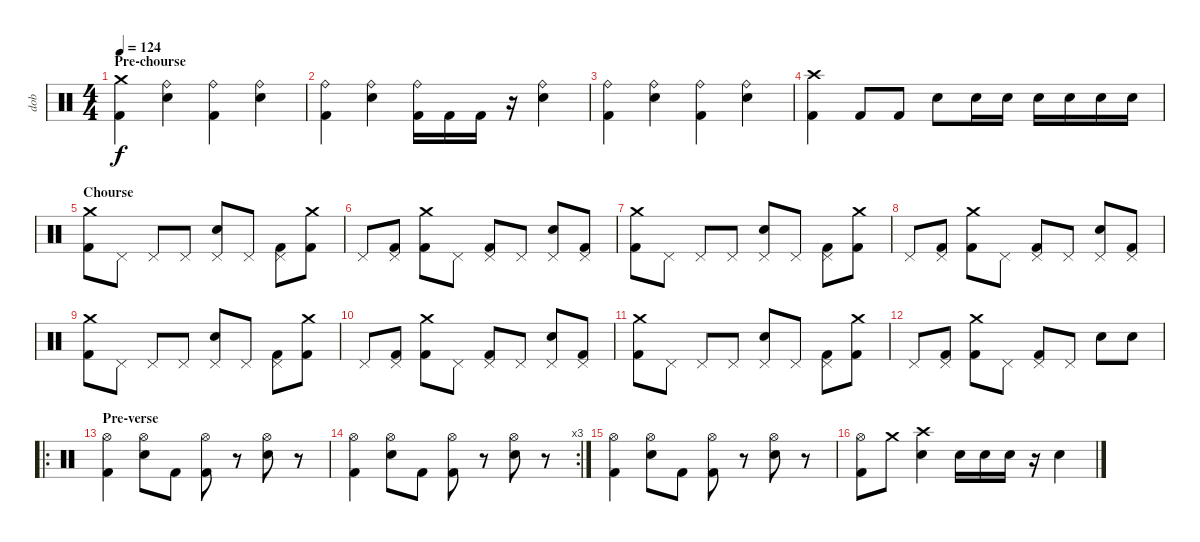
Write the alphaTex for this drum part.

\track ("dob" "dob") {instrument percussion}
\staff {score}
\articulation defaults
\ts (4 4)
\section ("" "Pre-chourse")
\tempo 124
\clef neutral
\ks c
("Crash medium (hit)" "Kick (hit) 2").4{dy f} ("Ride (bell)" "Electric Snare (hit)").4 ("Ride (bell)" "Kick (hit) 2").4 ("Ride (bell)" "Electric Snare (hit)").4 |
("Ride (bell)" "Kick (hit) 2").4 ("Ride (bell)" "Electric Snare (hit)").4 ("Ride (bell)" "Kick (hit) 2").16 "Kick (hit) 2".16 "Kick (hit) 2".16 r.16 ("Ride (bell)" "Electric Snare (hit)").4 |
("Ride (bell)" "Kick (hit) 2").4 ("Ride (bell)" "Electric Snare (hit)").4 ("Ride (bell)" "Kick (hit) 2").4 ("Ride (bell)" "Electric Snare (hit)").4 |
("Crash high (hit)" "Kick (hit) 2").4 "Kick (hit) 2".8 "Kick (hit) 2".8 "Electric Snare (hit)".8 "Electric Snare (hit)".16 "Electric Snare (hit)".16 "Electric Snare (hit)".16 "Electric Snare (hit)".16 "Electric Snare (hit)".16 "Electric Snare (hit)".16 |
\section ("" "Chourse")
("Crash medium (hit)" "Kick (hit) 2").8 "Pedal Hi-Hat (hit)".8 "Pedal Hi-Hat (hit)".8 "Pedal Hi-Hat (hit)".8 ("Pedal Hi-Hat (hit)" "Electric Snare (hit)").8 "Pedal Hi-Hat (hit)".8 ("Pedal Hi-Hat (hit)" "Kick (hit) 2").8 ("Crash medium (hit)" "Kick (hit) 2").8 |
"Pedal Hi-Hat (hit)".8 ("Pedal Hi-Hat (hit)" "Kick (hit) 2").8 ("Crash medium (hit)" "Kick (hit) 2").8 "Pedal Hi-Hat (hit)".8 ("Pedal Hi-Hat (hit)" "Kick (hit) 2").8 "Pedal Hi-Hat (hit)".8 ("Pedal Hi-Hat (hit)" "Electric Snare (hit)").8 ("Pedal Hi-Hat (hit)" "Kick (hit) 2").8 |
("Crash medium (hit)" "Kick (hit) 2").8 "Pedal Hi-Hat (hit)".8 "Pedal Hi-Hat (hit)".8 "Pedal Hi-Hat (hit)".8 ("Pedal Hi-Hat (hit)" "Electric Snare (hit)").8 "Pedal Hi-Hat (hit)".8 ("Pedal Hi-Hat (hit)" "Kick (hit) 2").8 ("Crash medium (hit)" "Kick (hit) 2").8 |
"Pedal Hi-Hat (hit)".8 ("Pedal Hi-Hat (hit)" "Kick (hit) 2").8 ("Crash medium (hit)" "Kick (hit) 2").8 "Pedal Hi-Hat (hit)".8 ("Pedal Hi-Hat (hit)" "Kick (hit) 2").8 "Pedal Hi-Hat (hit)".8 ("Pedal Hi-Hat (hit)" "Electric Snare (hit)").8 ("Pedal Hi-Hat (hit)" "Kick (hit) 2").8 |
("Crash medium (hit)" "Kick (hit) 2").8 "Pedal Hi-Hat (hit)".8 "Pedal Hi-Hat (hit)".8 "Pedal Hi-Hat (hit)".8 ("Pedal Hi-Hat (hit)" "Electric Snare (hit)").8 "Pedal Hi-Hat (hit)".8 ("Pedal Hi-Hat (hit)" "Kick (hit) 2").8 ("Crash medium (hit)" "Kick (hit) 2").8 |
"Pedal Hi-Hat (hit)".8 ("Pedal Hi-Hat (hit)" "Kick (hit) 2").8 ("Crash medium (hit)" "Kick (hit) 2").8 "Pedal Hi-Hat (hit)".8 ("Pedal Hi-Hat (hit)" "Kick (hit) 2").8 "Pedal Hi-Hat (hit)".8 ("Pedal Hi-Hat (hit)" "Electric Snare (hit)").8 ("Pedal Hi-Hat (hit)" "Kick (hit) 2").8 |
("Crash medium (hit)" "Kick (hit) 2").8 "Pedal Hi-Hat (hit)".8 "Pedal Hi-Hat (hit)".8 "Pedal Hi-Hat (hit)".8 ("Pedal Hi-Hat (hit)" "Electric Snare (hit)").8 "Pedal Hi-Hat (hit)".8 ("Pedal Hi-Hat (hit)" "Kick (hit) 2").8 ("Crash medium (hit)" "Kick (hit) 2").8 |
"Pedal Hi-Hat (hit)".8 ("Pedal Hi-Hat (hit)" "Kick (hit) 2").8 ("Crash medium (hit)" "Kick (hit) 2").8 "Pedal Hi-Hat (hit)".8 ("Pedal Hi-Hat (hit)" "Kick (hit) 2").8 "Pedal Hi-Hat (hit)".8 "Electric Snare (hit)".8 "Electric Snare (hit)".8 |
\ro
\section ("" "Pre-verse")
("Hi-Hat (open)" "Kick (hit) 2").4 ("Hi-Hat (open)" "Electric Snare (hit)").8 "Kick (hit) 2".8 ("Hi-Hat (open)" "Kick (hit) 2").8 r.8 ("Hi-Hat (open)" "Electric Snare (hit)").8 r.8 |
\rc 3
("Hi-Hat (open)" "Kick (hit) 2").4 ("Hi-Hat (open)" "Electric Snare (hit)").8 "Kick (hit) 2".8 ("Hi-Hat (open)" "Kick (hit) 2").8 r.8 ("Hi-Hat (open)" "Electric Snare (hit)").8 r.8 |
("Hi-Hat (open)" "Kick (hit) 2").4 ("Hi-Hat (open)" "Electric Snare (hit)").8 "Kick (hit) 2".8 ("Hi-Hat (open)" "Kick (hit) 2").8 r.8 ("Hi-Hat (open)" "Electric Snare (hit)").8 r.8 |
("Hi-Hat (open)" "Kick (hit) 2").8 "Crash medium (hit)".8 ("Crash high (hit)" "Electric Snare (hit)").4 "Electric Snare (hit)".16 "Electric Snare (hit)".16 "Electric Snare (hit)".16 r.16 "Electric Snare (hit)".4
